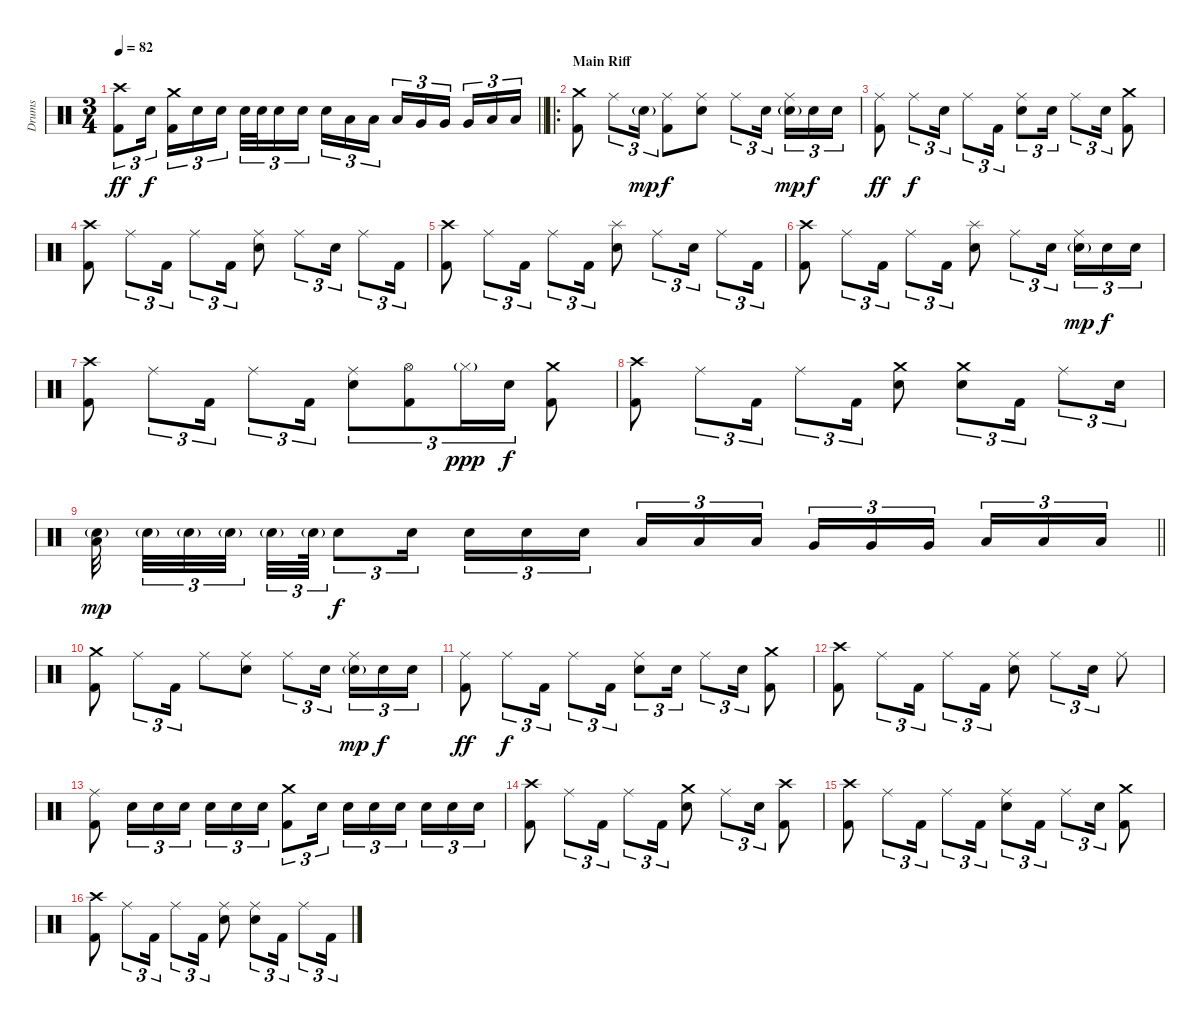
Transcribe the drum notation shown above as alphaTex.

\track ("Drums" "Drums") {instrument percussion}
\staff {score}
\articulation defaults
\ts (3 4)
\tempo 82
\clef neutral
\barLineRight lightlight
\ks c
("Crash high (hit)" "Kick (hit) 2").8{tu (3 2) dy ff} "Electric Snare (hit)".16{tu (3 2) dy f beam splitsecondary} ("Crash medium (hit)" "Kick (hit) 2").16{tu (3 2)} "Electric Snare (hit)".16{tu (3 2)} "Electric Snare (hit)".16{tu (3 2)} "Electric Snare (hit)".32{tu (3 2)} "Electric Snare (hit)".32{tu (3 2)} "Electric Snare (hit)".16{tu (3 2)} "Electric Snare (hit)".16{tu (3 2) beam splitsecondary} "Electric Snare (hit)".16{tu (3 2)} "Low Tom (hit)".16{tu (3 2)} "Low Tom (hit)".16{tu (3 2)} "Low Tom (hit)".16{tu (3 2)} "Very Low Tom (hit)".16{tu (3 2)} "Very Low Tom (hit)".16{tu (3 2) beam splitsecondary} "Very Low Tom (hit)".16{tu (3 2)} "Low Floor Tom (hit)".16{tu (3 2)} "Low Floor Tom (hit)".16{tu (3 2)} |
\ro
\section ("" "Main Riff")
("Crash medium (hit)" "Kick (hit) 2").8 "Ride (middle)".8{tu (3 2)} "Electric Snare (hit)"{g}.16{tu (3 2) dy mp} ("Ride (middle)" "Kick (hit) 2").8{dy f} ("Ride (middle)" "Electric Snare (hit)").8 "Ride (middle)".8{tu (3 2)} "Electric Snare (hit)".16{tu (3 2) beam splitsecondary} ("Ride (middle)" "Electric Snare (hit)"{g}).16{tu (3 2) dy mp} "Electric Snare (hit)".16{tu (3 2) dy f} "Electric Snare (hit)".16{tu (3 2)} |
("Ride (middle)" "Kick (hit) 2").8{dy ff} "Ride (middle)".8{tu (3 2) dy f} "Electric Snare (hit)".16{tu (3 2)} "Ride (middle)".8{tu (3 2)} "Kick (hit) 2".16{tu (3 2)} ("Ride (middle)" "Electric Snare (hit)").8{tu (3 2)} "Electric Snare (hit)".16{tu (3 2)} "Ride (middle)".8{tu (3 2)} "Electric Snare (hit)".16{tu (3 2)} ("Crash medium (hit)" "Kick (hit) 2").8 |
("Crash high (hit)" "Kick (hit) 2").8 "Ride (middle)".8{tu (3 2)} "Kick (hit) 2".16{tu (3 2)} "Ride (middle)".8{tu (3 2)} "Kick (hit) 2".16{tu (3 2)} ("Ride (middle)" "Electric Snare (hit)").8 "Ride (middle)".8{tu (3 2)} "Electric Snare (hit)".16{tu (3 2)} "Ride (middle)".8{tu (3 2)} "Kick (hit) 2".16{tu (3 2)} |
("Crash high (hit)" "Kick (hit) 2").8 "Ride (middle)".8{tu (3 2)} "Kick (hit) 2".16{tu (3 2)} "Ride (middle)".8{tu (3 2)} "Kick (hit) 2".16{tu (3 2)} ("Splash (hit)" "Electric Snare (hit)").8 "Ride (middle)".8{tu (3 2)} "Electric Snare (hit)".16{tu (3 2)} "Ride (middle)".8{tu (3 2)} "Kick (hit) 2".16{tu (3 2)} |
("Crash high (hit)" "Kick (hit) 2").8 "Ride (middle)".8{tu (3 2)} "Kick (hit) 2".16{tu (3 2)} "Ride (middle)".8{tu (3 2)} "Kick (hit) 2".16{tu (3 2)} ("Splash (hit)" "Electric Snare (hit)").8 "Ride (middle)".8{tu (3 2)} "Electric Snare (hit)".16{tu (3 2) beam splitsecondary} ("Ride (middle)" "Electric Snare (hit)"{g}).16{tu (3 2) dy mp} "Electric Snare (hit)".16{tu (3 2) dy f} "Electric Snare (hit)".16{tu (3 2)} |
("Crash high (hit)" "Kick (hit) 2").8 "Ride (middle)".8{tu (3 2)} "Kick (hit) 2".16{tu (3 2)} "Ride (middle)".8{tu (3 2)} "Kick (hit) 2".16{tu (3 2)} ("Ride (middle)" "Electric Snare (hit)").8{tu (3 2)} ("Hi-Hat (open)" "Kick (hit) 2").8{tu (3 2)} "Hi-Hat (closed)"{g}.16{tu (3 2) dy ppp} "Electric Snare (hit)".16{tu (3 2) dy f} ("Crash medium (hit)" "Kick (hit) 2").8 |
("Crash high (hit)" "Kick (hit) 2").8 "Ride (middle)".8{tu (3 2)} "Kick (hit) 2".16{tu (3 2)} "Ride (middle)".8{tu (3 2)} "Kick (hit) 2".16{tu (3 2)} ("Crash medium (hit)" "Electric Snare (hit)").8 ("Crash medium (hit)" "Electric Snare (hit)").8{tu (3 2)} "Kick (hit) 2".16{tu (3 2)} "Ride (middle)".8{tu (3 2)} "Electric Snare (hit)".16{tu (3 2)} |
\barLineRight lightlight
("Low Floor Tom (hit)" "Electric Snare (hit)"{g}).32{dy mp beam splitsecondary} "Electric Snare (hit)"{g}.32{tu (3 2)} "Electric Snare (hit)"{g}.32{tu (3 2)} "Electric Snare (hit)"{g}.32{tu (3 2) beam splitsecondary} "Electric Snare (hit)"{g}.32{tu (3 2)} "Electric Snare (hit)"{g}.64{tu (3 2)} "Electric Snare (hit)".8{tu (3 2) dy f} "Electric Snare (hit)".16{tu (3 2)} "Electric Snare (hit)".16{tu (3 2)} "Electric Snare (hit)".16{tu (3 2)} "Electric Snare (hit)".16{tu (3 2) beam splitsecondary} "Low Tom (hit)".16{tu (3 2)} "Low Tom (hit)".16{tu (3 2)} "Low Tom (hit)".16{tu (3 2)} "Very Low Tom (hit)".16{tu (3 2)} "Very Low Tom (hit)".16{tu (3 2)} "Very Low Tom (hit)".16{tu (3 2) beam splitsecondary} "Low Floor Tom (hit)".16{tu (3 2)} "Low Floor Tom (hit)".16{tu (3 2)} "Low Floor Tom (hit)".16{tu (3 2)} |
("Crash medium (hit)" "Kick (hit) 2").8 "Ride (middle)".8{tu (3 2)} "Kick (hit) 2".16{tu (3 2)} "Ride (middle)".8 ("Ride (middle)" "Electric Snare (hit)").8 "Ride (middle)".8{tu (3 2)} "Electric Snare (hit)".16{tu (3 2) beam splitsecondary} ("Ride (middle)" "Electric Snare (hit)"{g}).16{tu (3 2) dy mp} "Electric Snare (hit)".16{tu (3 2) dy f} "Electric Snare (hit)".16{tu (3 2)} |
("Ride (middle)" "Kick (hit) 2").8{dy ff} "Ride (middle)".8{tu (3 2) dy f} "Kick (hit) 2".16{tu (3 2)} "Ride (middle)".8{tu (3 2)} "Kick (hit) 2".16{tu (3 2)} ("Ride (middle)" "Electric Snare (hit)").8{tu (3 2)} "Electric Snare (hit)".16{tu (3 2)} "Ride (middle)".8{tu (3 2)} "Electric Snare (hit)".16{tu (3 2)} ("Crash medium (hit)" "Kick (hit) 2").8 |
("Crash high (hit)" "Kick (hit) 2").8 "Ride (middle)".8{tu (3 2)} "Kick (hit) 2".16{tu (3 2)} "Ride (middle)".8{tu (3 2)} "Kick (hit) 2".16{tu (3 2)} ("Ride (middle)" "Electric Snare (hit)").8 "Ride (middle)".8{tu (3 2)} "Electric Snare (hit)".16{tu (3 2)} "Ride (middle)".8 |
("Ride (middle)" "Kick (hit) 2").8 "Electric Snare (hit)".16{tu (3 2)} "Electric Snare (hit)".16{tu (3 2)} "Electric Snare (hit)".16{tu (3 2)} "Electric Snare (hit)".16{tu (3 2)} "Electric Snare (hit)".16{tu (3 2)} "Electric Snare (hit)".16{tu (3 2)} ("Crash medium (hit)" "Kick (hit) 2").8{tu (3 2)} "Electric Snare (hit)".16{tu (3 2)} "Electric Snare (hit)".16{tu (3 2)} "Electric Snare (hit)".16{tu (3 2)} "Electric Snare (hit)".16{tu (3 2) beam splitsecondary} "Electric Snare (hit)".16{tu (3 2)} "Electric Snare (hit)".16{tu (3 2)} "Electric Snare (hit)".16{tu (3 2)} |
("Crash high (hit)" "Kick (hit) 2").8 "Ride (middle)".8{tu (3 2)} "Kick (hit) 2".16{tu (3 2)} "Ride (middle)".8{tu (3 2)} "Kick (hit) 2".16{tu (3 2)} ("Crash medium (hit)" "Electric Snare (hit)").8 "Ride (middle)".8{tu (3 2)} "Electric Snare (hit)".16{tu (3 2)} ("Crash high (hit)" "Kick (hit) 2").8 |
("Crash high (hit)" "Kick (hit) 2").8 "Ride (middle)".8{tu (3 2)} "Kick (hit) 2".16{tu (3 2)} "Ride (middle)".8{tu (3 2)} "Kick (hit) 2".16{tu (3 2)} ("Ride (middle)" "Electric Snare (hit)").8{tu (3 2)} "Kick (hit) 2".16{tu (3 2)} "Ride (middle)".8{tu (3 2)} "Electric Snare (hit)".16{tu (3 2)} ("Crash medium (hit)" "Kick (hit) 2").8 |
("Crash high (hit)" "Kick (hit) 2").8 "Ride (middle)".8{tu (3 2)} "Kick (hit) 2".16{tu (3 2)} "Ride (middle)".8{tu (3 2)} "Kick (hit) 2".16{tu (3 2)} ("Ride (middle)" "Electric Snare (hit)").8 ("Ride (middle)" "Electric Snare (hit)").8{tu (3 2)} "Kick (hit) 2".16{tu (3 2)} "Ride (middle)".8{tu (3 2)} "Kick (hit) 2".16{tu (3 2)}
